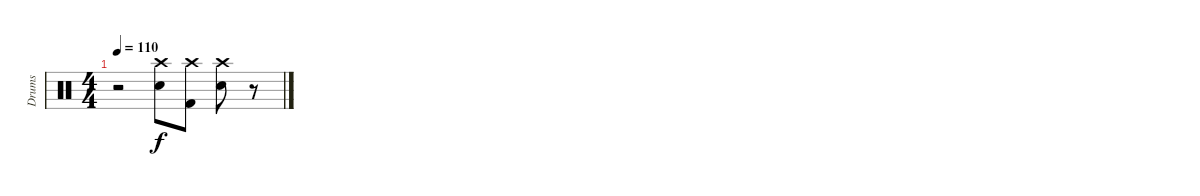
\track ("Drums" "Drums") {instrument percussion}
\staff {score}
\articulation defaults
\ts (4 4)
\tempo 110
\clef neutral
\ks c
r.2{dy mp} ("Snare (hit) 2" "Crash high (hit)").8{dy f} ("Kick (hit) 2" "Crash high (hit)").8 ("Crash high (hit)" "Snare (hit) 2").8 r.8
